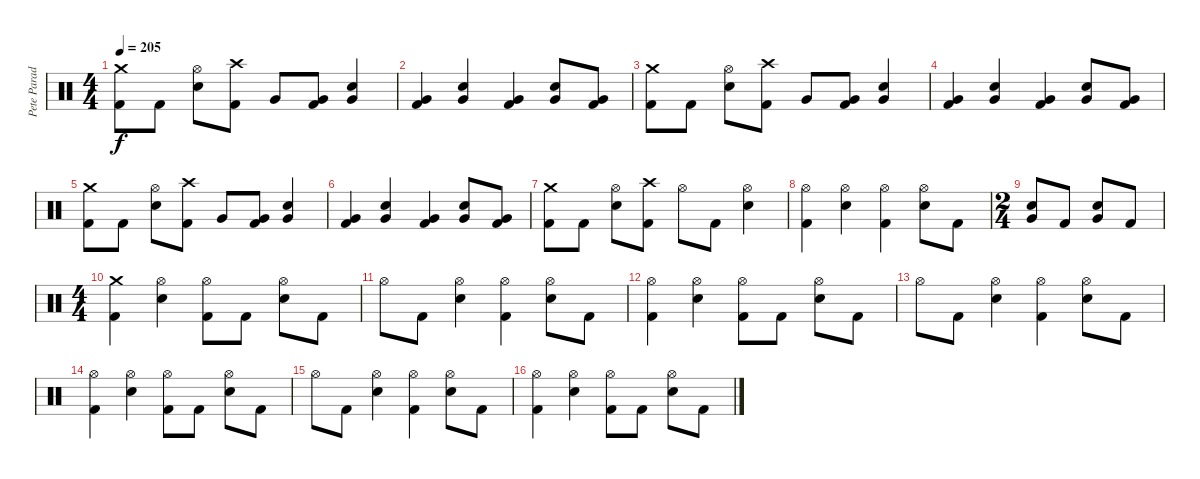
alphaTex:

\track ("Pete Parada - Drums" "Pete Parad") {instrument percussion}
\staff {score}
\articulation defaults
\ts (4 4)
\tempo 205
\clef neutral
\ks c
("Crash medium (hit)" "Kick (hit) 2").8{dy f} "Kick (hit) 2".8 ("Hi-Hat (open)" "Electric Snare (hit)").8 ("Crash high (hit)" "Kick (hit) 2").8 "Very Low Tom (hit)".8 ("Very Low Tom (hit)" "Kick (hit) 2").8 ("Very Low Tom (hit)" "Electric Snare (hit)").4 |
("Very Low Tom (hit)" "Kick (hit) 2").4 ("Very Low Tom (hit)" "Electric Snare (hit)").4 ("Very Low Tom (hit)" "Kick (hit) 2").4 ("Very Low Tom (hit)" "Electric Snare (hit)").8 ("Very Low Tom (hit)" "Kick (hit) 2").8 |
("Crash medium (hit)" "Kick (hit) 2").8 "Kick (hit) 2".8 ("Hi-Hat (open)" "Electric Snare (hit)").8 ("Crash high (hit)" "Kick (hit) 2").8 "Very Low Tom (hit)".8 ("Very Low Tom (hit)" "Kick (hit) 2").8 ("Very Low Tom (hit)" "Electric Snare (hit)").4 |
("Very Low Tom (hit)" "Kick (hit) 2").4 ("Very Low Tom (hit)" "Electric Snare (hit)").4 ("Very Low Tom (hit)" "Kick (hit) 2").4 ("Very Low Tom (hit)" "Electric Snare (hit)").8 ("Very Low Tom (hit)" "Kick (hit) 2").8 |
("Crash medium (hit)" "Kick (hit) 2").8 "Kick (hit) 2".8 ("Hi-Hat (open)" "Electric Snare (hit)").8 ("Crash high (hit)" "Kick (hit) 2").8 "Very Low Tom (hit)".8 ("Very Low Tom (hit)" "Kick (hit) 2").8 ("Very Low Tom (hit)" "Electric Snare (hit)").4 |
("Very Low Tom (hit)" "Kick (hit) 2").4 ("Very Low Tom (hit)" "Electric Snare (hit)").4 ("Very Low Tom (hit)" "Kick (hit) 2").4 ("Very Low Tom (hit)" "Electric Snare (hit)").8 ("Very Low Tom (hit)" "Kick (hit) 2").8 |
("Crash medium (hit)" "Kick (hit) 2").8 "Kick (hit) 2".8 ("Hi-Hat (open)" "Electric Snare (hit)").8 ("Crash high (hit)" "Kick (hit) 2").8 "Hi-Hat (open)".8 "Kick (hit) 2".8 ("Hi-Hat (open)" "Electric Snare (hit)").4 |
("Hi-Hat (open)" "Kick (hit) 2").4 ("Hi-Hat (open)" "Electric Snare (hit)").4 ("Hi-Hat (open)" "Kick (hit) 2").4 ("Hi-Hat (open)" "Electric Snare (hit)").8 "Kick (hit) 2".8 |
\ts (2 4)
("Very Low Tom (hit)" "Electric Snare (hit)").8 "Kick (hit) 2".8 ("Very Low Tom (hit)" "Electric Snare (hit)").8 "Kick (hit) 2".8 |
\ts (4 4)
("Crash medium (hit)" "Kick (hit) 2").4 ("Hi-Hat (open)" "Electric Snare (hit)").4 ("Hi-Hat (open)" "Kick (hit) 2").8 "Kick (hit) 2".8 ("Hi-Hat (open)" "Electric Snare (hit)").8 "Kick (hit) 2".8 |
"Hi-Hat (open)".8 "Kick (hit) 2".8 ("Hi-Hat (open)" "Electric Snare (hit)").4 ("Hi-Hat (open)" "Kick (hit) 2").4 ("Hi-Hat (open)" "Electric Snare (hit)").8 "Kick (hit) 2".8 |
("Hi-Hat (open)" "Kick (hit) 2").4 ("Hi-Hat (open)" "Electric Snare (hit)").4 ("Hi-Hat (open)" "Kick (hit) 2").8 "Kick (hit) 2".8 ("Hi-Hat (open)" "Electric Snare (hit)").8 "Kick (hit) 2".8 |
"Hi-Hat (open)".8 "Kick (hit) 2".8 ("Hi-Hat (open)" "Electric Snare (hit)").4 ("Hi-Hat (open)" "Kick (hit) 2").4 ("Hi-Hat (open)" "Electric Snare (hit)").8 "Kick (hit) 2".8 |
("Hi-Hat (open)" "Kick (hit) 2").4 ("Hi-Hat (open)" "Electric Snare (hit)").4 ("Hi-Hat (open)" "Kick (hit) 2").8 "Kick (hit) 2".8 ("Hi-Hat (open)" "Electric Snare (hit)").8 "Kick (hit) 2".8 |
"Hi-Hat (open)".8 "Kick (hit) 2".8 ("Hi-Hat (open)" "Electric Snare (hit)").4 ("Hi-Hat (open)" "Kick (hit) 2").4 ("Hi-Hat (open)" "Electric Snare (hit)").8 "Kick (hit) 2".8 |
("Hi-Hat (open)" "Kick (hit) 2").4 ("Hi-Hat (open)" "Electric Snare (hit)").4 ("Hi-Hat (open)" "Kick (hit) 2").8 "Kick (hit) 2".8 ("Hi-Hat (open)" "Electric Snare (hit)").8 "Kick (hit) 2".8
